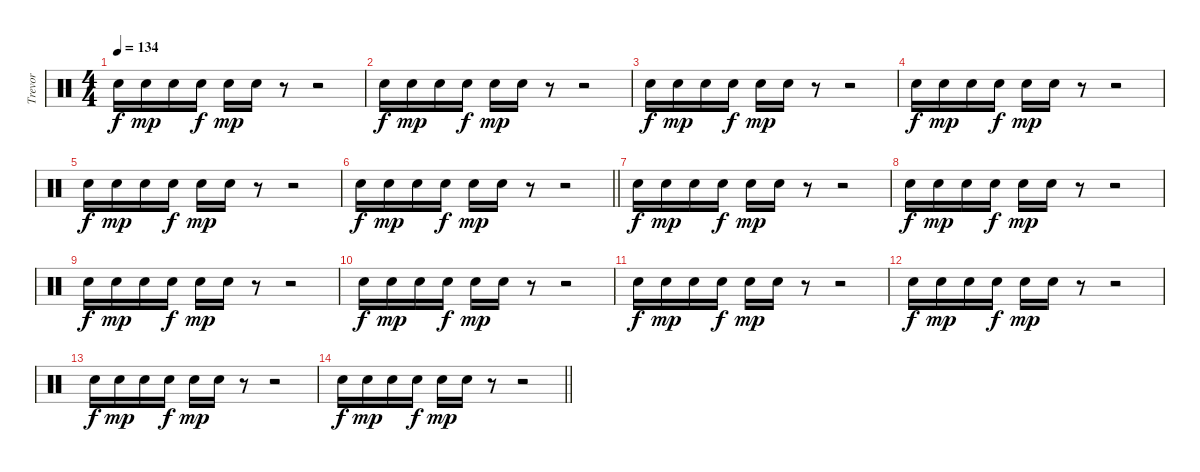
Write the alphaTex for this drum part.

\track ("Trevor" "Trevor") {instrument percussion}
\staff {score}
\articulation defaults
\ts (4 4)
\tempo 134
\clef neutral
\ks c "Snare (hit) 2".16{dy f} "Snare (hit) 2".16{dy mp} "Snare (hit) 2".16 "Snare (hit) 2".16{dy f} "Snare (hit) 2".16{dy mp} "Snare (hit) 2".16
r.8 r.2 |
"Snare (hit) 2".16{dy f} "Snare (hit) 2".16{dy mp} "Snare (hit) 2".16 "Snare (hit) 2".16{dy f} "Snare (hit) 2".16{dy mp} "Snare (hit) 2".16 r.8 r.2 |
"Snare (hit) 2".16{dy f} "Snare (hit) 2".16{dy mp} "Snare (hit) 2".16 "Snare (hit) 2".16{dy f} "Snare (hit) 2".16{dy mp} "Snare (hit) 2".16 r.8 r.2 |
"Snare (hit) 2".16{dy f} "Snare (hit) 2".16{dy mp} "Snare (hit) 2".16 "Snare (hit) 2".16{dy f} "Snare (hit) 2".16{dy mp} "Snare (hit) 2".16 r.8 r.2 |
"Snare (hit) 2".16{dy f} "Snare (hit) 2".16{dy mp} "Snare (hit) 2".16 "Snare (hit) 2".16{dy f} "Snare (hit) 2".16{dy mp} "Snare (hit) 2".16 r.8 r.2 |
\barLineRight lightlight "Snare (hit) 2".16{dy f} "Snare (hit) 2".16{dy mp} "Snare (hit) 2".16 "Snare (hit) 2".16{dy f} "Snare (hit) 2".16{dy mp} "Snare (hit) 2".16
r.8 r.2 |
\section ("" "")
"Snare (hit) 2".16{dy f} "Snare (hit) 2".16{dy mp} "Snare (hit) 2".16 "Snare (hit) 2".16{dy f} "Snare (hit) 2".16{dy mp} "Snare (hit) 2".16 r.8 r.2 |
"Snare (hit) 2".16{dy f} "Snare (hit) 2".16{dy mp} "Snare (hit) 2".16 "Snare (hit) 2".16{dy f} "Snare (hit) 2".16{dy mp} "Snare (hit) 2".16 r.8 r.2 |
"Snare (hit) 2".16{dy f} "Snare (hit) 2".16{dy mp} "Snare (hit) 2".16 "Snare (hit) 2".16{dy f} "Snare (hit) 2".16{dy mp} "Snare (hit) 2".16 r.8 r.2 |
"Snare (hit) 2".16{dy f} "Snare (hit) 2".16{dy mp} "Snare (hit) 2".16 "Snare (hit) 2".16{dy f} "Snare (hit) 2".16{dy mp} "Snare (hit) 2".16 r.8 r.2 |
"Snare (hit) 2".16{dy f} "Snare (hit) 2".16{dy mp} "Snare (hit) 2".16 "Snare (hit) 2".16{dy f} "Snare (hit) 2".16{dy mp} "Snare (hit) 2".16 r.8 r.2 |
"Snare (hit) 2".16{dy f} "Snare (hit) 2".16{dy mp} "Snare (hit) 2".16 "Snare (hit) 2".16{dy f} "Snare (hit) 2".16{dy mp} "Snare (hit) 2".16 r.8 r.2 |
"Snare (hit) 2".16{dy f} "Snare (hit) 2".16{dy mp} "Snare (hit) 2".16 "Snare (hit) 2".16{dy f} "Snare (hit) 2".16{dy mp} "Snare (hit) 2".16 r.8 r.2 |
\barLineRight lightlight "Snare (hit) 2".16{dy f} "Snare (hit) 2".16{dy mp} "Snare (hit) 2".16 "Snare (hit) 2".16{dy f} "Snare (hit) 2".16{dy mp} "Snare (hit) 2".16
r.8 r.2
